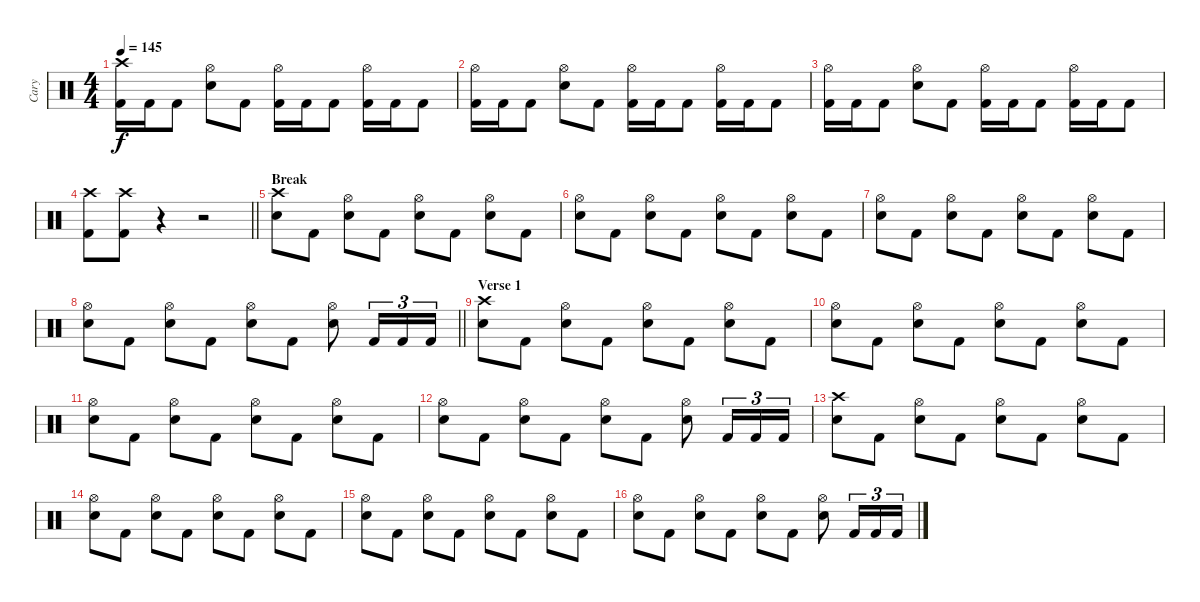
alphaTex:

\track ("Cary" "Cary") {instrument percussion}
\staff {score}
\articulation defaults
\ts (4 4)
\tempo 145
\clef neutral
\ks c
("Crash high (hit)" "Kick (hit) 2").16{dy f} "Kick (hit) 2".16 "Kick (hit) 2".8 ("Hi-Hat (open)" "Electric Snare (hit)").8 "Kick (hit) 2".8 ("Hi-Hat (open)" "Kick (hit) 2").16 "Kick (hit) 2".16 "Kick (hit) 2".8 ("Hi-Hat (open)" "Kick (hit) 2").16 "Kick (hit) 2".16 "Kick (hit) 2".8 |
("Hi-Hat (open)" "Kick (hit) 2").16 "Kick (hit) 2".16 "Kick (hit) 2".8 ("Hi-Hat (open)" "Electric Snare (hit)").8 "Kick (hit) 2".8 ("Hi-Hat (open)" "Kick (hit) 2").16 "Kick (hit) 2".16 "Kick (hit) 2".8 ("Hi-Hat (open)" "Kick (hit) 2").16 "Kick (hit) 2".16 "Kick (hit) 2".8 |
("Hi-Hat (open)" "Kick (hit) 2").16 "Kick (hit) 2".16 "Kick (hit) 2".8 ("Hi-Hat (open)" "Electric Snare (hit)").8 "Kick (hit) 2".8 ("Hi-Hat (open)" "Kick (hit) 2").16 "Kick (hit) 2".16 "Kick (hit) 2".8 ("Hi-Hat (open)" "Kick (hit) 2").16 "Kick (hit) 2".16 "Kick (hit) 2".8 |
\barLineRight lightlight
("Crash high (hit)" "Kick (hit) 2").8 ("Crash high (hit)" "Kick (hit) 2").8 r.4 r.2 |
\section ("" "Break")
("Crash high (hit)" "Electric Snare (hit)").8 "Kick (hit) 2".8 ("Hi-Hat (open)" "Electric Snare (hit)").8 "Kick (hit) 2".8 ("Hi-Hat (open)" "Electric Snare (hit)").8 "Kick (hit) 2".8 ("Hi-Hat (open)" "Electric Snare (hit)").8 "Kick (hit) 2".8 |
("Hi-Hat (open)" "Electric Snare (hit)").8 "Kick (hit) 2".8 ("Hi-Hat (open)" "Electric Snare (hit)").8 "Kick (hit) 2".8 ("Hi-Hat (open)" "Electric Snare (hit)").8 "Kick (hit) 2".8 ("Hi-Hat (open)" "Electric Snare (hit)").8 "Kick (hit) 2".8 |
("Hi-Hat (open)" "Electric Snare (hit)").8 "Kick (hit) 2".8 ("Hi-Hat (open)" "Electric Snare (hit)").8 "Kick (hit) 2".8 ("Hi-Hat (open)" "Electric Snare (hit)").8 "Kick (hit) 2".8 ("Hi-Hat (open)" "Electric Snare (hit)").8 "Kick (hit) 2".8 |
\barLineRight lightlight
("Hi-Hat (open)" "Electric Snare (hit)").8 "Kick (hit) 2".8 ("Hi-Hat (open)" "Electric Snare (hit)").8 "Kick (hit) 2".8 ("Hi-Hat (open)" "Electric Snare (hit)").8 "Kick (hit) 2".8 ("Hi-Hat (open)" "Electric Snare (hit)").8 "Kick (hit) 2".16{tu (3 2)} "Kick (hit) 2".16{tu (3 2)} "Kick (hit) 2".16{tu (3 2)} |
\section ("" "Verse 1")
("Crash high (hit)" "Electric Snare (hit)").8 "Kick (hit) 2".8 ("Hi-Hat (open)" "Electric Snare (hit)").8 "Kick (hit) 2".8 ("Hi-Hat (open)" "Electric Snare (hit)").8 "Kick (hit) 2".8 ("Hi-Hat (open)" "Electric Snare (hit)").8 "Kick (hit) 2".8 |
("Hi-Hat (open)" "Electric Snare (hit)").8 "Kick (hit) 2".8 ("Hi-Hat (open)" "Electric Snare (hit)").8 "Kick (hit) 2".8 ("Hi-Hat (open)" "Electric Snare (hit)").8 "Kick (hit) 2".8 ("Hi-Hat (open)" "Electric Snare (hit)").8 "Kick (hit) 2".8 |
("Hi-Hat (open)" "Electric Snare (hit)").8 "Kick (hit) 2".8 ("Hi-Hat (open)" "Electric Snare (hit)").8 "Kick (hit) 2".8 ("Hi-Hat (open)" "Electric Snare (hit)").8 "Kick (hit) 2".8 ("Hi-Hat (open)" "Electric Snare (hit)").8 "Kick (hit) 2".8 |
("Hi-Hat (open)" "Electric Snare (hit)").8 "Kick (hit) 2".8 ("Hi-Hat (open)" "Electric Snare (hit)").8 "Kick (hit) 2".8 ("Hi-Hat (open)" "Electric Snare (hit)").8 "Kick (hit) 2".8 ("Hi-Hat (open)" "Electric Snare (hit)").8 "Kick (hit) 2".16{tu (3 2)} "Kick (hit) 2".16{tu (3 2)} "Kick (hit) 2".16{tu (3 2)} |
("Crash high (hit)" "Electric Snare (hit)").8 "Kick (hit) 2".8 ("Hi-Hat (open)" "Electric Snare (hit)").8 "Kick (hit) 2".8 ("Hi-Hat (open)" "Electric Snare (hit)").8 "Kick (hit) 2".8 ("Hi-Hat (open)" "Electric Snare (hit)").8 "Kick (hit) 2".8 |
("Hi-Hat (open)" "Electric Snare (hit)").8 "Kick (hit) 2".8 ("Hi-Hat (open)" "Electric Snare (hit)").8 "Kick (hit) 2".8 ("Hi-Hat (open)" "Electric Snare (hit)").8 "Kick (hit) 2".8 ("Hi-Hat (open)" "Electric Snare (hit)").8 "Kick (hit) 2".8 |
("Hi-Hat (open)" "Electric Snare (hit)").8 "Kick (hit) 2".8 ("Hi-Hat (open)" "Electric Snare (hit)").8 "Kick (hit) 2".8 ("Hi-Hat (open)" "Electric Snare (hit)").8 "Kick (hit) 2".8 ("Hi-Hat (open)" "Electric Snare (hit)").8 "Kick (hit) 2".8 |
("Hi-Hat (open)" "Electric Snare (hit)").8 "Kick (hit) 2".8 ("Hi-Hat (open)" "Electric Snare (hit)").8 "Kick (hit) 2".8 ("Hi-Hat (open)" "Electric Snare (hit)").8 "Kick (hit) 2".8 ("Hi-Hat (open)" "Electric Snare (hit)").8 "Kick (hit) 2".16{tu (3 2)} "Kick (hit) 2".16{tu (3 2)} "Kick (hit) 2".16{tu (3 2)}
